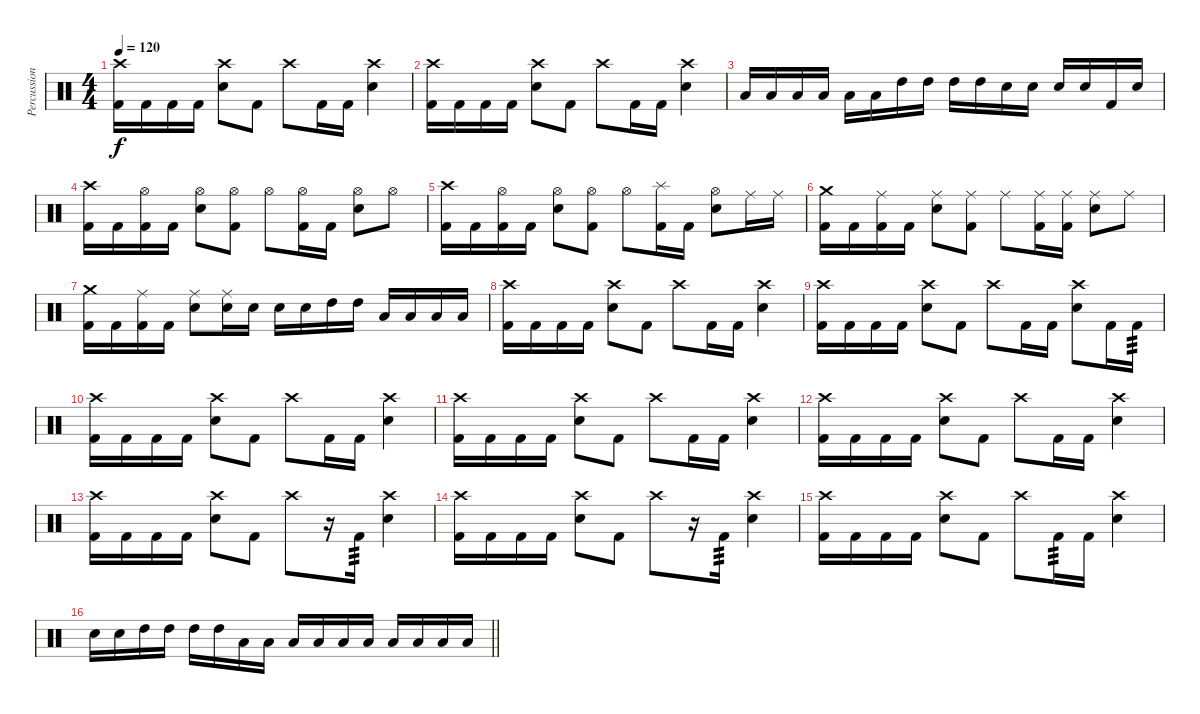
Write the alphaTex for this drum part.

\track ("Percussion" "Percussion") {instrument percussion}
\staff {score}
\articulation defaults
\ts (4 4)
\tempo 120
\clef neutral
\ks c
("Crash high (hit)" "Kick (hit) 2").16{dy f} "Kick (hit) 2".16 "Kick (hit) 2".16 "Kick (hit) 2".16 ("Crash high (hit)" "Electric Snare (hit)").8 "Kick (hit) 2".8 "Crash high (hit)".8 "Kick (hit) 2".16 "Kick (hit) 2".16 ("Crash high (hit)" "Electric Snare (hit)").4 |
("Crash high (hit)" "Kick (hit) 2").16 "Kick (hit) 2".16 "Kick (hit) 2".16 "Kick (hit) 2".16 ("Crash high (hit)" "Electric Snare (hit)").8 "Kick (hit) 2".8 "Crash high (hit)".8 "Kick (hit) 2".16 "Kick (hit) 2".16 ("Crash high (hit)" "Electric Snare (hit)").4 |
"Low Floor Tom (hit)".16 "Low Floor Tom (hit)".16 "Low Tom (hit)".16 "Low Tom (hit)".16 "Low Tom (hit)".16 "Low Tom (hit)".16 "High Tom (hit)".16 "High Tom (hit)".16 "High Tom (hit)".16 "High Tom (hit)".16 "Electric Snare (hit)".16 "Electric Snare (hit)".16 "Electric Snare (hit)".16 "Electric Snare (hit)".16 "Kick (hit) 2".16 "Electric Snare (hit)".16 |
("Crash high (hit)" "Kick (hit) 2").16 "Kick (hit) 2".16 ("Hi-Hat (open)" "Kick (hit) 2").16 "Kick (hit) 2".16 ("Hi-Hat (open)" "Electric Snare (hit)").8 ("Hi-Hat (open)" "Kick (hit) 2").8 "Hi-Hat (open)".8 ("Hi-Hat (open)" "Kick (hit) 2").16 "Kick (hit) 2".16 ("Hi-Hat (open)" "Electric Snare (hit)").8 "Hi-Hat (open)".8 |
("Crash high (hit)" "Kick (hit) 2").16 "Kick (hit) 2".16 ("Hi-Hat (open)" "Kick (hit) 2").16 "Kick (hit) 2".16 ("Hi-Hat (open)" "Electric Snare (hit)").8 ("Hi-Hat (open)" "Kick (hit) 2").8 "Hi-Hat (open)".8 ("Splash (hit)" "Kick (hit) 2").16 "Kick (hit) 2".16 ("Hi-Hat (open)" "Electric Snare (hit)").8 "Ride (middle)".16 "Ride (middle)".16 |
("Crash medium (hit)" "Kick (hit) 2").16 "Kick (hit) 2".16 ("Ride (middle)" "Kick (hit) 2").16 "Kick (hit) 2".16 ("Ride (middle)" "Electric Snare (hit)").8 ("Ride (middle)" "Kick (hit) 2").8 "Ride (middle)".8 ("Ride (middle)" "Kick (hit) 2").16 ("Ride (middle)" "Kick (hit) 2").16 ("Ride (middle)" "Electric Snare (hit)").8 "Ride (middle)".8 |
("Crash medium (hit)" "Kick (hit) 2").16 "Kick (hit) 2".16 ("Ride (middle)" "Kick (hit) 2").16 "Kick (hit) 2".16 ("Ride (middle)" "Electric Snare (hit)").8 ("Ride (middle)" "Electric Snare (hit)").16 "Electric Snare (hit)".16 "Electric Snare (hit)".16 "Electric Snare (hit)".16 "High Tom (hit)".16 "High Tom (hit)".16 "Low Tom (hit)".16 "Low Tom (hit)".16 "Low Floor Tom (hit)".16 "Low Floor Tom (hit)".16 |
("Crash high (hit)" "Kick (hit) 2").16 "Kick (hit) 2".16 "Kick (hit) 2".16 "Kick (hit) 2".16 ("Crash high (hit)" "Electric Snare (hit)").8 "Kick (hit) 2".8 "Crash high (hit)".8 "Kick (hit) 2".16 "Kick (hit) 2".16 ("Crash high (hit)" "Electric Snare (hit)").4 |
("Crash high (hit)" "Kick (hit) 2").16 "Kick (hit) 2".16 "Kick (hit) 2".16 "Kick (hit) 2".16 ("Crash high (hit)" "Electric Snare (hit)").8 "Kick (hit) 2".8 "Crash high (hit)".8 "Kick (hit) 2".16 "Kick (hit) 2".16 ("Crash high (hit)" "Electric Snare (hit)").8 "Kick (hit) 2".16 "Kick (hit) 2".16{tp 3} |
("Crash high (hit)" "Kick (hit) 2").16 "Kick (hit) 2".16 "Kick (hit) 2".16 "Kick (hit) 2".16 ("Crash high (hit)" "Electric Snare (hit)").8 "Kick (hit) 2".8 "Crash high (hit)".8 "Kick (hit) 2".16 "Kick (hit) 2".16 ("Crash high (hit)" "Electric Snare (hit)").4 |
("Crash high (hit)" "Kick (hit) 2").16 "Kick (hit) 2".16 "Kick (hit) 2".16 "Kick (hit) 2".16 ("Crash high (hit)" "Electric Snare (hit)").8 "Kick (hit) 2".8 "Crash high (hit)".8 "Kick (hit) 2".16 "Kick (hit) 2".16 ("Crash high (hit)" "Electric Snare (hit)").4 |
("Crash high (hit)" "Kick (hit) 2").16 "Kick (hit) 2".16 "Kick (hit) 2".16 "Kick (hit) 2".16 ("Crash high (hit)" "Electric Snare (hit)").8 "Kick (hit) 2".8 "Crash high (hit)".8 "Kick (hit) 2".16 "Kick (hit) 2".16 ("Crash high (hit)" "Electric Snare (hit)").4 |
("Crash high (hit)" "Kick (hit) 2").16 "Kick (hit) 2".16 "Kick (hit) 2".16 "Kick (hit) 2".16 ("Crash high (hit)" "Electric Snare (hit)").8 "Kick (hit) 2".8 "Crash high (hit)".8 r.16 "Kick (hit) 2".16{tp 3} ("Crash high (hit)" "Electric Snare (hit)").4 |
("Crash high (hit)" "Kick (hit) 2").16 "Kick (hit) 2".16 "Kick (hit) 2".16 "Kick (hit) 2".16 ("Crash high (hit)" "Electric Snare (hit)").8 "Kick (hit) 2".8 "Crash high (hit)".8 r.16 "Kick (hit) 2".16{tp 3} ("Crash high (hit)" "Electric Snare (hit)").4 |
("Crash high (hit)" "Kick (hit) 2").16 "Kick (hit) 2".16 "Kick (hit) 2".16 "Kick (hit) 2".16 ("Crash high (hit)" "Electric Snare (hit)").8 "Kick (hit) 2".8 "Crash high (hit)".8 "Kick (hit) 2".16{tp 3} "Kick (hit) 2".16 ("Crash high (hit)" "Electric Snare (hit)").4 |
\barLineRight lightlight "Electric Snare (hit)".16 "Electric Snare (hit)".16 "High Tom (hit)".16 "High Tom (hit)".16 "High Tom (hit)".16 "High Tom (hit)".16 "Low Tom (hit)".16 "Low Tom (hit)".16 "Low Tom (hit)".16 "Low Tom (hit)".16 "Low Floor Tom (hit)".16 "Low Floor Tom (hit)".16 "Low Floor Tom (hit)".16 "Low Floor Tom (hit)".16 "Low Floor Tom (hit)".16 "Low Floor Tom (hit)".16
